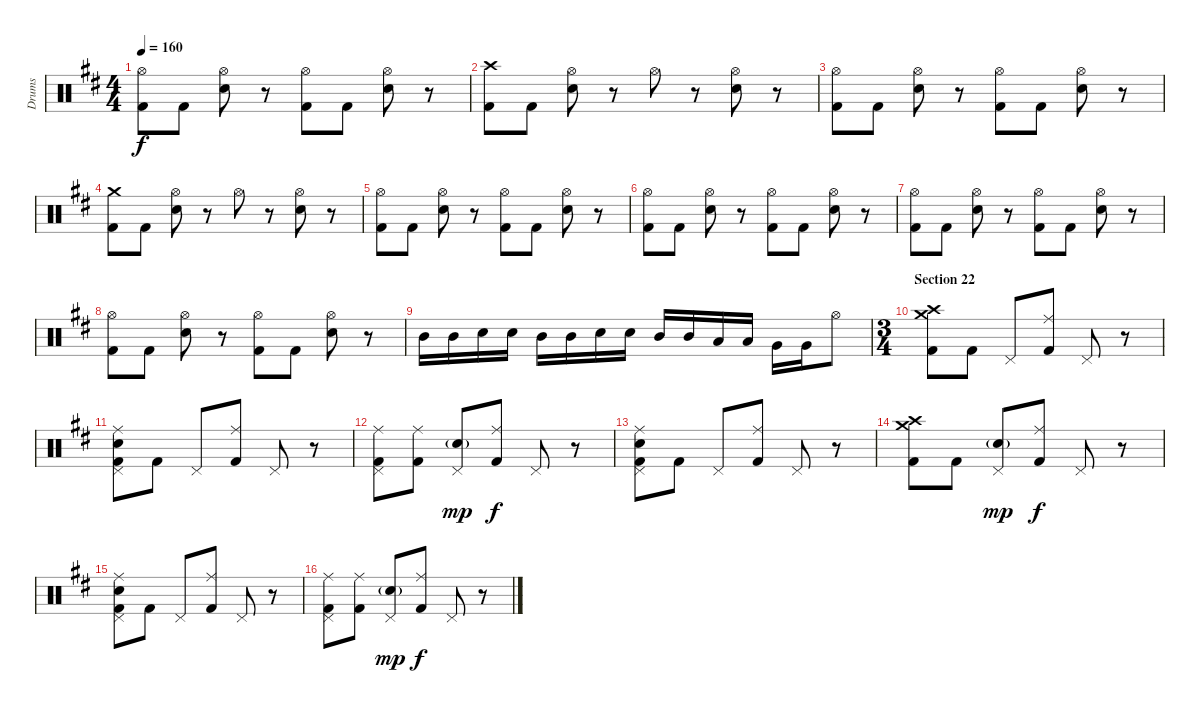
\track ("Drums" "Drums") {instrument percussion}
\staff {score}
\articulation defaults
\ts (4 4)
\tempo 160
\clef neutral
\ks bminor
("Hi-Hat (open)" "Kick (hit) 2").8{dy f} "Kick (hit) 2".8 ("Hi-Hat (open)" "Snare (hit) 2").8 r.8 ("Hi-Hat (open)" "Kick (hit) 2").8 "Kick (hit) 2".8 ("Hi-Hat (open)" "Snare (hit) 2").8 r.8 |
("Crash high (hit)" "Kick (hit) 2").8 "Kick (hit) 2".8 ("Hi-Hat (open)" "Snare (hit) 2").8 r.8 "Hi-Hat (open)".8 r.8 ("Hi-Hat (open)" "Snare (hit) 2").8 r.8 |
("Hi-Hat (open)" "Kick (hit) 2").8 "Kick (hit) 2".8 ("Hi-Hat (open)" "Snare (hit) 2").8 r.8 ("Hi-Hat (open)" "Kick (hit) 2").8 "Kick (hit) 2".8 ("Hi-Hat (open)" "Snare (hit) 2").8 r.8 |
("Crash medium (hit)" "Kick (hit) 2").8 "Kick (hit) 2".8 ("Hi-Hat (open)" "Snare (hit) 2").8 r.8 "Hi-Hat (open)".8 r.8 ("Hi-Hat (open)" "Snare (hit) 2").8 r.8 |
("Hi-Hat (open)" "Kick (hit) 2").8 "Kick (hit) 2".8 ("Hi-Hat (open)" "Snare (hit) 2").8 r.8 ("Hi-Hat (open)" "Kick (hit) 2").8 "Kick (hit) 2".8 ("Hi-Hat (open)" "Snare (hit) 2").8 r.8 |
("Hi-Hat (open)" "Kick (hit) 2").8 "Kick (hit) 2".8 ("Hi-Hat (open)" "Snare (hit) 2").8 r.8 ("Hi-Hat (open)" "Kick (hit) 2").8 "Kick (hit) 2".8 ("Hi-Hat (open)" "Snare (hit) 2").8 r.8 |
("Hi-Hat (open)" "Kick (hit) 2").8 "Kick (hit) 2".8 ("Hi-Hat (open)" "Snare (hit) 2").8 r.8 ("Hi-Hat (open)" "Kick (hit) 2").8 "Kick (hit) 2".8 ("Hi-Hat (open)" "Snare (hit) 2").8 r.8 |
("Hi-Hat (open)" "Kick (hit) 2").8 "Kick (hit) 2".8 ("Hi-Hat (open)" "Snare (hit) 2").8 r.8 ("Hi-Hat (open)" "Kick (hit) 2").8 "Kick (hit) 2".8 ("Hi-Hat (open)" "Snare (hit) 2").8 r.8 |
"Mid Tom (hit)".16 "Mid Tom (hit)".16 "Snare (hit) 2".16 "Snare (hit) 2".16 "Mid Tom (hit)".16 "Mid Tom (hit)".16 "Snare (hit) 2".16 "Snare (hit) 2".16 "Mid Tom (hit)".16 "Mid Tom (hit)".16 "Low Tom (hit)".16 "Low Tom (hit)".16 "Very Low Tom (hit)".16 "Very Low Tom (hit)".16 "Hi-Hat (open)".8 |
\ts (3 4)
\section ("" "Section 22")
("Crash high (hit)" "Crash medium (hit)" "Kick (hit) 2").8 "Kick (hit) 2".8 "Pedal Hi-Hat (hit)".8 ("Ride (middle)" "Kick (hit) 2").8 "Pedal Hi-Hat (hit)".8 r.8 |
("Ride (middle)" "Pedal Hi-Hat (hit)" "Snare (hit) 2" "Kick (hit) 2").8 "Kick (hit) 2".8 "Pedal Hi-Hat (hit)".8 ("Ride (middle)" "Kick (hit) 2").8 "Pedal Hi-Hat (hit)".8 r.8 |
("Ride (middle)" "Pedal Hi-Hat (hit)" "Kick (hit) 2").8 ("Ride (middle)" "Kick (hit) 2").8 ("Pedal Hi-Hat (hit)" "Snare (hit) 2"{g}).8{dy mp} ("Ride (middle)" "Kick (hit) 2").8{dy f} "Pedal Hi-Hat (hit)".8 r.8 |
("Ride (middle)" "Pedal Hi-Hat (hit)" "Snare (hit) 2" "Kick (hit) 2").8 "Kick (hit) 2".8 "Pedal Hi-Hat (hit)".8 ("Ride (middle)" "Kick (hit) 2").8 "Pedal Hi-Hat (hit)".8 r.8 |
("Crash high (hit)" "Crash medium (hit)" "Kick (hit) 2").8 "Kick (hit) 2".8 ("Pedal Hi-Hat (hit)" "Snare (hit) 2"{g}).8{dy mp} ("Ride (middle)" "Kick (hit) 2").8{dy f} "Pedal Hi-Hat (hit)".8 r.8 |
("Ride (middle)" "Pedal Hi-Hat (hit)" "Snare (hit) 2" "Kick (hit) 2").8 "Kick (hit) 2".8 "Pedal Hi-Hat (hit)".8 ("Ride (middle)" "Kick (hit) 2").8 "Pedal Hi-Hat (hit)".8 r.8 |
("Ride (middle)" "Pedal Hi-Hat (hit)" "Kick (hit) 2").8 ("Ride (middle)" "Kick (hit) 2").8 ("Pedal Hi-Hat (hit)" "Snare (hit) 2"{g}).8{dy mp} ("Ride (middle)" "Kick (hit) 2").8{dy f} "Pedal Hi-Hat (hit)".8 r.8
